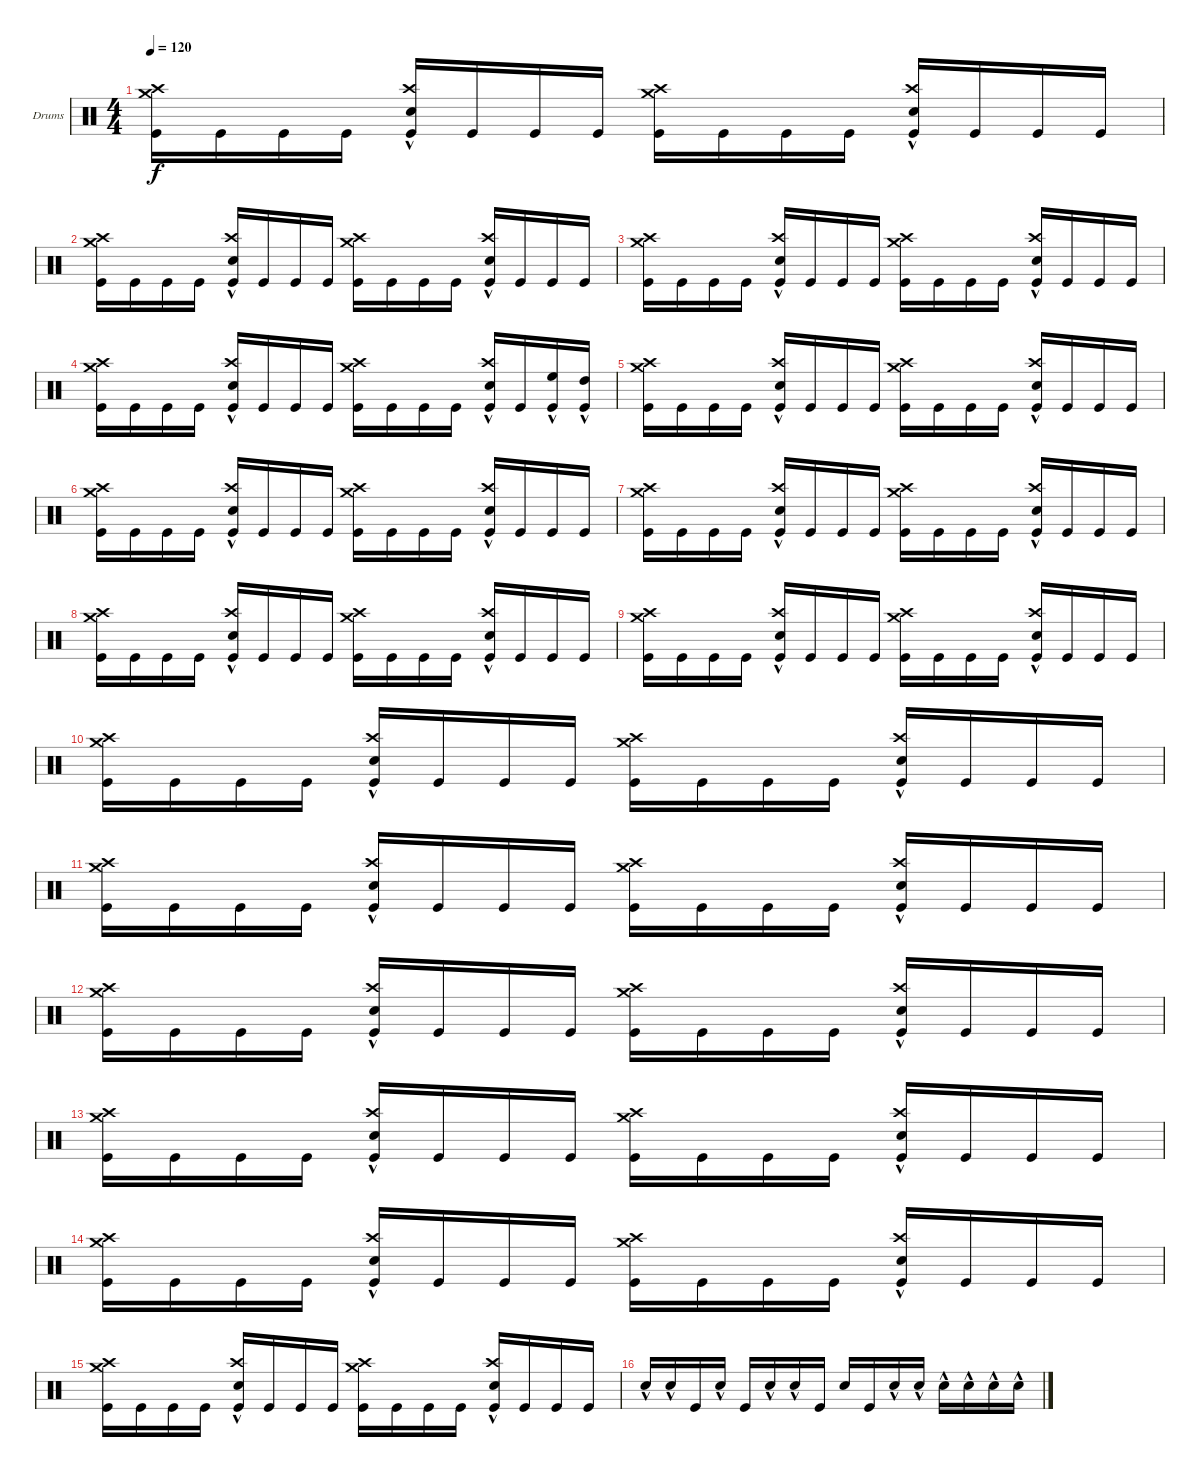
\bracketExtendMode groupsimilarinstruments
\firstSystemTrackNameOrientation horizontal
\otherSystemsTrackNameOrientation horizontal
\track ("Drumkit" "Drums") {instrument percussion}
\staff {score}
\articulation defaults
\ts (4 4)
\tempo 120
\clef neutral
\scale
0.333333
\ks c
("Kick (hit)" "Crash high (hit)" "Crash medium (hit)").16{dy f} "Kick (hit)".16 "Kick (hit)".16 "Kick (hit)".16 ("Kick (hit)" "Crash high (hit)" "Snare (hit) 2"{hac}).16 "Kick (hit)".16 "Kick (hit)".16 "Kick (hit)".16 ("Kick (hit)" "Crash high (hit)" "Crash medium (hit)").16 "Kick (hit)".16 "Kick (hit)".16 "Kick (hit)".16 ("Kick (hit)" "Crash high (hit)" "Snare (hit) 2"{hac}).16 "Kick (hit)".16 "Kick (hit)".16 "Kick (hit)".16 |
\scale
0.333333 ("Kick (hit)" "Crash high (hit)" "Crash medium (hit)").16 "Kick (hit)".16 "Kick (hit)".16 "Kick (hit)".16 ("Kick (hit)" "Crash high (hit)" "Snare (hit) 2"{hac}).16 "Kick (hit)".16 "Kick (hit)".16 "Kick (hit)".16 ("Kick (hit)" "Crash high (hit)" "Crash medium (hit)").16 "Kick (hit)".16 "Kick (hit)".16 "Kick (hit)".16 ("Kick (hit)" "Crash high (hit)" "Snare (hit) 2"{hac}).16 "Kick (hit)".16 "Kick (hit)".16 "Kick (hit)".16 |
\scale
0.333333 ("Kick (hit)" "Crash high (hit)" "Crash medium (hit)").16 "Kick (hit)".16 "Kick (hit)".16 "Kick (hit)".16 ("Kick (hit)" "Crash high (hit)" "Snare (hit) 2"{hac}).16 "Kick (hit)".16 "Kick (hit)".16 "Kick (hit)".16 ("Kick (hit)" "Crash high (hit)" "Crash medium (hit)").16 "Kick (hit)".16 "Kick (hit)".16 "Kick (hit)".16 ("Kick (hit)" "Crash high (hit)" "Snare (hit) 2"{hac}).16 "Kick (hit)".16 "Kick (hit)".16 "Kick (hit)".16 |
\scale
0.333333 ("Kick (hit)" "Crash high (hit)" "Crash medium (hit)").16 "Kick (hit)".16 "Kick (hit)".16 "Kick (hit)".16 ("Kick (hit)" "Crash high (hit)" "Snare (hit) 2"{hac}).16 "Kick (hit)".16 "Kick (hit)".16 "Kick (hit)".16 ("Kick (hit)" "Crash high (hit)" "Crash medium (hit)").16 "Kick (hit)".16 "Kick (hit)".16 "Kick (hit)".16 ("Kick (hit)" "Crash high (hit)" "Snare (hit) 2"{hac}).16 "Kick (hit)".16 ("Kick (hit)" "High Floor Tom (hit)"{hac}).16 ("Kick (hit)" "High Tom (hit)"{hac}).16 |
\scale
0.333333 ("Kick (hit)" "Crash high (hit)" "Crash medium (hit)").16 "Kick (hit)".16 "Kick (hit)".16 "Kick (hit)".16 ("Kick (hit)" "Crash high (hit)" "Snare (hit) 2"{hac}).16 "Kick (hit)".16 "Kick (hit)".16 "Kick (hit)".16 ("Kick (hit)" "Crash high (hit)" "Crash medium (hit)").16 "Kick (hit)".16 "Kick (hit)".16 "Kick (hit)".16 ("Kick (hit)" "Crash high (hit)" "Snare (hit) 2"{hac}).16 "Kick (hit)".16 "Kick (hit)".16 "Kick (hit)".16 |
\scale
0.333333 ("Kick (hit)" "Crash high (hit)" "Crash medium (hit)").16 "Kick (hit)".16 "Kick (hit)".16 "Kick (hit)".16 ("Kick (hit)" "Crash high (hit)" "Snare (hit) 2"{hac}).16 "Kick (hit)".16 "Kick (hit)".16 "Kick (hit)".16 ("Kick (hit)" "Crash high (hit)" "Crash medium (hit)").16 "Kick (hit)".16 "Kick (hit)".16 "Kick (hit)".16 ("Kick (hit)" "Crash high (hit)" "Snare (hit) 2"{hac}).16 "Kick (hit)".16 "Kick (hit)".16 "Kick (hit)".16 |
\scale
0.333333 ("Kick (hit)" "Crash high (hit)" "Crash medium (hit)").16 "Kick (hit)".16 "Kick (hit)".16 "Kick (hit)".16 ("Kick (hit)" "Crash high (hit)" "Snare (hit) 2"{hac}).16 "Kick (hit)".16 "Kick (hit)".16 "Kick (hit)".16 ("Kick (hit)" "Crash high (hit)" "Crash medium (hit)").16 "Kick (hit)".16 "Kick (hit)".16 "Kick (hit)".16 ("Kick (hit)" "Crash high (hit)" "Snare (hit) 2"{hac}).16 "Kick (hit)".16 "Kick (hit)".16 "Kick (hit)".16 |
\scale
0.333333 ("Kick (hit)" "Crash high (hit)" "Crash medium (hit)").16 "Kick (hit)".16 "Kick (hit)".16 "Kick (hit)".16 ("Kick (hit)" "Crash high (hit)" "Snare (hit) 2"{hac}).16 "Kick (hit)".16 "Kick (hit)".16 "Kick (hit)".16 ("Kick (hit)" "Crash high (hit)" "Crash medium (hit)").16 "Kick (hit)".16 "Kick (hit)".16 "Kick (hit)".16 ("Kick (hit)" "Crash high (hit)" "Snare (hit) 2"{hac}).16 "Kick (hit)".16 "Kick (hit)".16 "Kick (hit)".16 |
\scale
0.333333 ("Kick (hit)" "Crash high (hit)" "Crash medium (hit)").16 "Kick (hit)".16 "Kick (hit)".16 "Kick (hit)".16 ("Kick (hit)" "Crash high (hit)" "Snare (hit) 2"{hac}).16 "Kick (hit)".16 "Kick (hit)".16 "Kick (hit)".16 ("Kick (hit)" "Crash high (hit)" "Crash medium (hit)").16 "Kick (hit)".16 "Kick (hit)".16 "Kick (hit)".16 ("Kick (hit)" "Crash high (hit)" "Snare (hit) 2"{hac}).16 "Kick (hit)".16 "Kick (hit)".16 "Kick (hit)".16 |
\scale
0.333333 ("Kick (hit)" "Crash high (hit)" "Crash medium (hit)").16 "Kick (hit)".16 "Kick (hit)".16 "Kick (hit)".16 ("Kick (hit)" "Crash high (hit)" "Snare (hit) 2"{hac}).16 "Kick (hit)".16 "Kick (hit)".16 "Kick (hit)".16 ("Kick (hit)" "Crash high (hit)" "Crash medium (hit)").16 "Kick (hit)".16 "Kick (hit)".16 "Kick (hit)".16 ("Kick (hit)" "Crash high (hit)" "Snare (hit) 2"{hac}).16 "Kick (hit)".16 "Kick (hit)".16 "Kick (hit)".16 |
\scale
0.333333 ("Kick (hit)" "Crash high (hit)" "Crash medium (hit)").16 "Kick (hit)".16 "Kick (hit)".16 "Kick (hit)".16 ("Kick (hit)" "Crash high (hit)" "Snare (hit) 2"{hac}).16 "Kick (hit)".16 "Kick (hit)".16 "Kick (hit)".16 ("Kick (hit)" "Crash high (hit)" "Crash medium (hit)").16 "Kick (hit)".16 "Kick (hit)".16 "Kick (hit)".16 ("Kick (hit)" "Crash high (hit)" "Snare (hit) 2"{hac}).16 "Kick (hit)".16 "Kick (hit)".16 "Kick (hit)".16 |
\scale
0.333333 ("Kick (hit)" "Crash high (hit)" "Crash medium (hit)").16 "Kick (hit)".16 "Kick (hit)".16 "Kick (hit)".16 ("Kick (hit)" "Crash high (hit)" "Snare (hit) 2"{hac}).16 "Kick (hit)".16 "Kick (hit)".16 "Kick (hit)".16 ("Kick (hit)" "Crash high (hit)" "Crash medium (hit)").16 "Kick (hit)".16 "Kick (hit)".16 "Kick (hit)".16 ("Kick (hit)" "Crash high (hit)" "Snare (hit) 2"{hac}).16 "Kick (hit)".16 "Kick (hit)".16 "Kick (hit)".16 |
\scale
0.333333 ("Kick (hit)" "Crash high (hit)" "Crash medium (hit)").16 "Kick (hit)".16 "Kick (hit)".16 "Kick (hit)".16 ("Kick (hit)" "Crash high (hit)" "Snare (hit) 2"{hac}).16 "Kick (hit)".16 "Kick (hit)".16 "Kick (hit)".16 ("Kick (hit)" "Crash high (hit)" "Crash medium (hit)").16 "Kick (hit)".16 "Kick (hit)".16 "Kick (hit)".16 ("Kick (hit)" "Crash high (hit)" "Snare (hit) 2"{hac}).16 "Kick (hit)".16 "Kick (hit)".16 "Kick (hit)".16 |
\scale
0.333333 ("Kick (hit)" "Crash high (hit)" "Crash medium (hit)").16 "Kick (hit)".16 "Kick (hit)".16 "Kick (hit)".16 ("Kick (hit)" "Crash high (hit)" "Snare (hit) 2"{hac}).16 "Kick (hit)".16 "Kick (hit)".16 "Kick (hit)".16 ("Kick (hit)" "Crash high (hit)" "Crash medium (hit)").16 "Kick (hit)".16 "Kick (hit)".16 "Kick (hit)".16 ("Kick (hit)" "Crash high (hit)" "Snare (hit) 2"{hac}).16 "Kick (hit)".16 "Kick (hit)".16 "Kick (hit)".16 |
\scale
0.333333 ("Kick (hit)" "Crash high (hit)" "Crash medium (hit)").16 "Kick (hit)".16 "Kick (hit)".16 "Kick (hit)".16 ("Kick (hit)" "Crash high (hit)" "Snare (hit) 2"{hac}).16 "Kick (hit)".16 "Kick (hit)".16 "Kick (hit)".16 ("Kick (hit)" "Crash high (hit)" "Crash medium (hit)").16 "Kick (hit)".16 "Kick (hit)".16 "Kick (hit)".16 ("Kick (hit)" "Crash high (hit)" "Snare (hit) 2"{hac}).16 "Kick (hit)".16 "Kick (hit)".16 "Kick (hit)".16 |
\scale
0.333333 "Snare (hit) 2"{hac}.16 "Snare (hit) 2"{hac}.16 "Kick (hit)".16 "Snare (hit) 2"{hac}.16 "Kick (hit)".16 "Snare (hit) 2"{hac}.16 "Snare (hit) 2"{hac}.16 "Kick (hit)".16 "Snare (hit) 2".16 "Kick (hit)".16 "Snare (hit) 2"{hac}.16 "Snare (hit) 2"{hac}.16 "Snare (hit) 2"{hac}.16 "Snare (hit) 2"{hac}.16 "Snare (hit) 2"{hac}.16 "Snare (hit) 2"{hac}.16
